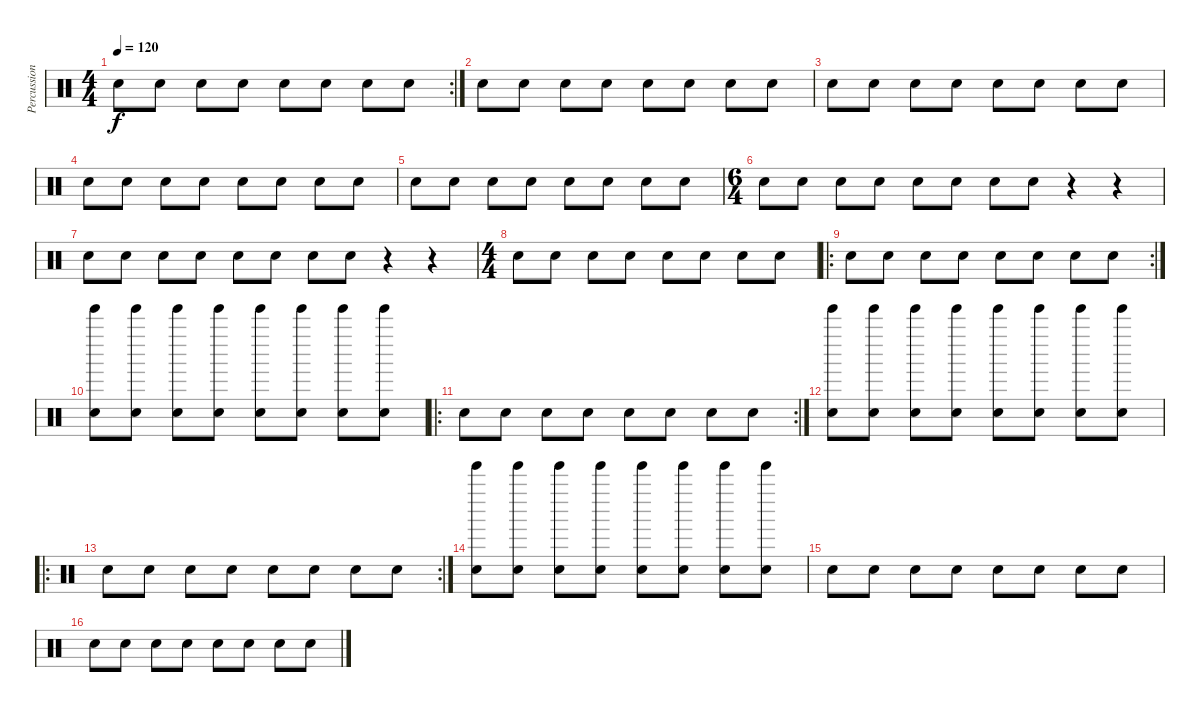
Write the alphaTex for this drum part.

\track ("Percussion" "Percussion") {instrument percussion}
\staff {score}
\articulation defaults
\rc 2
\ts (4 4)
\tempo 120
\clef neutral
\ks c "Hand Clap (hit)".8{dy f} "Snare (hit) 2".8 "Hand Clap (hit)".8 "Snare (hit) 2".8 "Hand Clap (hit)".8 "Snare (hit) 2".8 "Hand Clap (hit)".8 "Snare (hit) 2".8
|
"Hand Clap (hit)".8 "Snare (hit) 2".8 "Hand Clap (hit)".8 "Snare (hit) 2".8 "Hand Clap (hit)".8 "Snare (hit) 2".8 "Hand Clap (hit)".8 "Snare (hit) 2".8 |
"Hand Clap (hit)".8 "Snare (hit) 2".8 "Hand Clap (hit)".8 "Snare (hit) 2".8 "Hand Clap (hit)".8 "Snare (hit) 2".8 "Hand Clap (hit)".8 "Snare (hit) 2".8 |
"Hand Clap (hit)".8 "Snare (hit) 2".8 "Hand Clap (hit)".8 "Snare (hit) 2".8 "Hand Clap (hit)".8 "Snare (hit) 2".8 "Hand Clap (hit)".8 "Snare (hit) 2".8 |
"Hand Clap (hit)".8 "Snare (hit) 2".8 "Hand Clap (hit)".8 "Snare (hit) 2".8 "Hand Clap (hit)".8 "Snare (hit) 2".8 "Hand Clap (hit)".8 "Snare (hit) 2".8 |
\ts (6 4)
"Hand Clap (hit)".8 "Snare (hit) 2".8 "Hand Clap (hit)".8 "Snare (hit) 2".8 "Hand Clap (hit)".8 "Snare (hit) 2".8 "Hand Clap (hit)".8 "Snare (hit) 2".8 r.4 r.4 |
"Hand Clap (hit)".8 "Snare (hit) 2".8 "Hand Clap (hit)".8 "Snare (hit) 2".8 "Hand Clap (hit)".8 "Snare (hit) 2".8 "Hand Clap (hit)".8 "Snare (hit) 2".8 r.4 r.4 |
\ts (4 4)
"Hand Clap (hit)".8 "Snare (hit) 2".8 "Hand Clap (hit)".8 "Snare (hit) 2".8 "Hand Clap (hit)".8 "Snare (hit) 2".8 "Hand Clap (hit)".8 "Snare (hit) 2".8 |
\ro
\rc 2 "Hand Clap (hit)".8 "Snare (hit) 2".8 "Hand Clap (hit)".8 "Snare (hit) 2".8 "Hand Clap (hit)".8 "Snare (hit) 2".8 "Hand Clap (hit)".8 "Snare (hit) 2".8
|
("Hand Clap (hit)" "Tinkle Bell (hit)").8 ("Snare (hit) 2" "Tinkle Bell (hit)").8 ("Hand Clap (hit)" "Tinkle Bell (hit)").8 ("Snare (hit) 2" "Tinkle Bell (hit)").8 ("Hand Clap (hit)" "Tinkle Bell (hit)").8 ("Snare (hit) 2" "Tinkle Bell (hit)").8 ("Hand Clap (hit)" "Tinkle Bell (hit)").8 ("Snare (hit) 2" "Tinkle Bell (hit)").8 |
\ro
\rc 2 "Hand Clap (hit)".8 "Snare (hit) 2".8 "Hand Clap (hit)".8 "Snare (hit) 2".8 "Hand Clap (hit)".8 "Snare (hit) 2".8 "Hand Clap (hit)".8 "Snare (hit) 2".8
|
("Hand Clap (hit)" "Tinkle Bell (hit)").8 ("Snare (hit) 2" "Tinkle Bell (hit)").8 ("Hand Clap (hit)" "Tinkle Bell (hit)").8 ("Snare (hit) 2" "Tinkle Bell (hit)").8 ("Hand Clap (hit)" "Tinkle Bell (hit)").8 ("Snare (hit) 2" "Tinkle Bell (hit)").8 ("Hand Clap (hit)" "Tinkle Bell (hit)").8 ("Snare (hit) 2" "Tinkle Bell (hit)").8 |
\ro
\rc 2 "Hand Clap (hit)".8 "Snare (hit) 2".8 "Hand Clap (hit)".8 "Snare (hit) 2".8 "Hand Clap (hit)".8 "Snare (hit) 2".8 "Hand Clap (hit)".8 "Snare (hit) 2".8
|
("Hand Clap (hit)" "Tinkle Bell (hit)").8 ("Snare (hit) 2" "Tinkle Bell (hit)").8 ("Hand Clap (hit)" "Tinkle Bell (hit)").8 ("Snare (hit) 2" "Tinkle Bell (hit)").8 ("Hand Clap (hit)" "Tinkle Bell (hit)").8 ("Snare (hit) 2" "Tinkle Bell (hit)").8 ("Hand Clap (hit)" "Tinkle Bell (hit)").8 ("Snare (hit) 2" "Tinkle Bell (hit)").8 |
"Hand Clap (hit)".8 "Snare (hit) 2".8 "Hand Clap (hit)".8 "Snare (hit) 2".8 "Hand Clap (hit)".8 "Snare (hit) 2".8 "Hand Clap (hit)".8 "Snare (hit) 2".8 |
"Hand Clap (hit)".8 "Snare (hit) 2".8 "Hand Clap (hit)".8 "Snare (hit) 2".8 "Hand Clap (hit)".8 "Snare (hit) 2".8 "Hand Clap (hit)".8 "Snare (hit) 2".8
